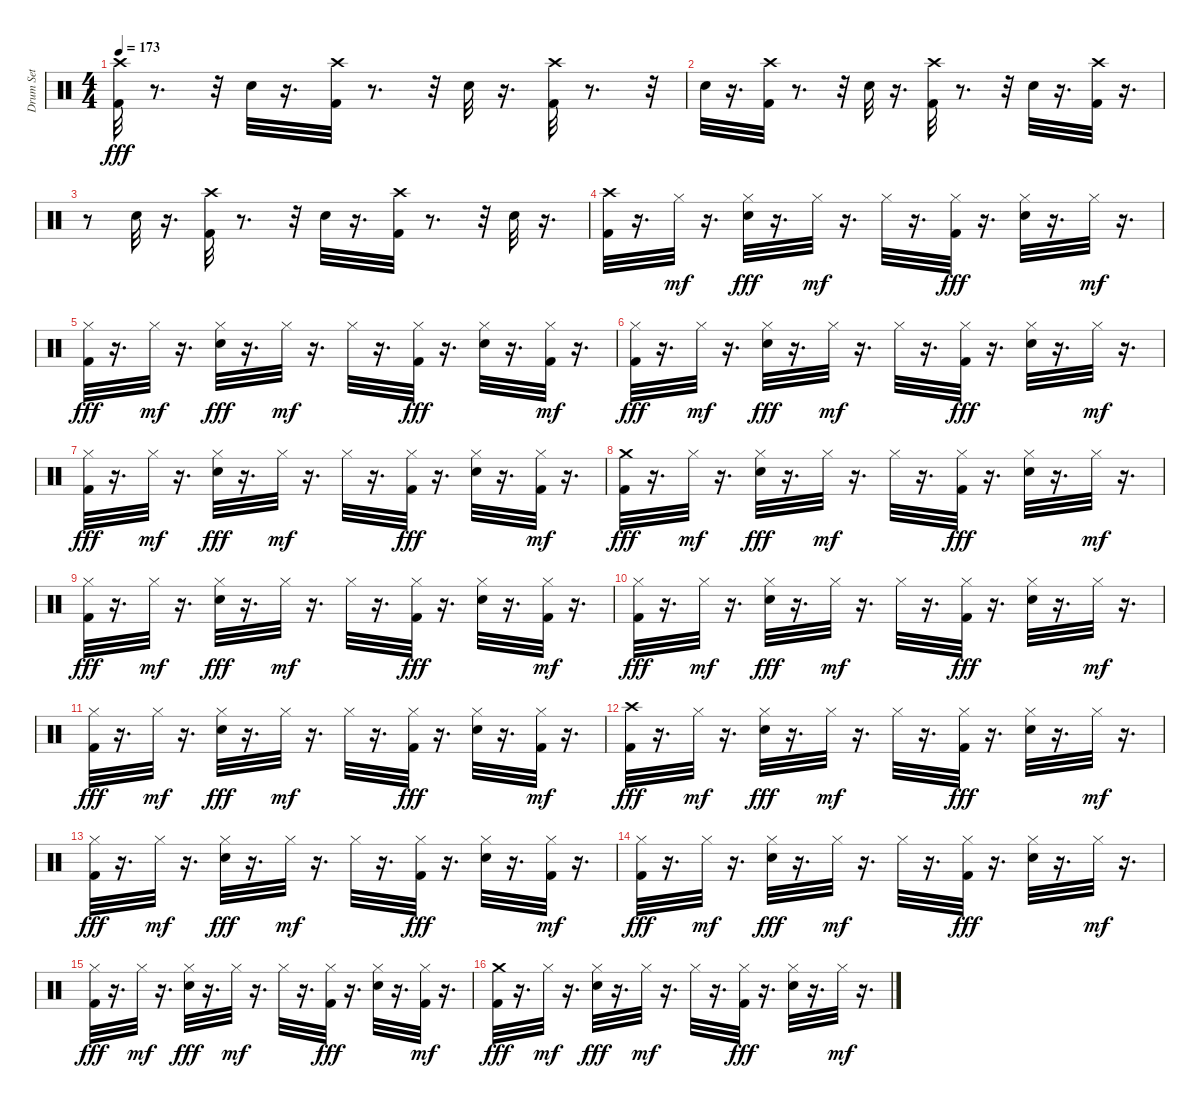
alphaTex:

\track ("Drum Set" "Drum Set") {instrument percussion}
\staff {score}
\articulation defaults
\ts (4 4)
\tempo 173
\clef neutral
\ks c
("Crash high (hit)" "Kick (hit) 2").32{dy fff} r.8{d} r.32 "Electric Snare (hit)".32 r.16{d} ("Crash high (hit)" "Kick (hit) 2").32 r.8{d} r.32 "Electric Snare (hit)".32 r.16{d} ("Crash high (hit)" "Kick (hit) 2").32 r.8{d} r.32 |
"Electric Snare (hit)".32 r.16{d} ("Crash high (hit)" "Kick (hit) 2").32 r.8{d} r.32 "Electric Snare (hit)".32 r.16{d} ("Crash high (hit)" "Kick (hit) 2").32 r.8{d} r.32 "Electric Snare (hit)".32 r.16{d} ("Crash high (hit)" "Kick (hit) 2").32 r.16{d} |
r.8 "Electric Snare (hit)".32 r.16{d} ("Crash high (hit)" "Kick (hit) 2").32 r.8{d} r.32 "Electric Snare (hit)".32 r.16{d} ("Crash high (hit)" "Kick (hit) 2").32 r.8{d} r.32 "Electric Snare (hit)".32 r.16{d} |
("Crash high (hit)" "Kick (hit) 2").32 r.16{d} "Hi-Hat (closed)".32{dy mf} r.16{d} ("Hi-Hat (closed)" "Electric Snare (hit)").32{dy fff} r.16{d} "Hi-Hat (closed)".32{dy mf} r.16{d} "Hi-Hat (closed)".32 r.16{d} ("Hi-Hat (closed)" "Kick (hit) 2").32{dy fff} r.16{d} ("Hi-Hat (closed)" "Electric Snare (hit)").32 r.16{d} "Hi-Hat (closed)".32{dy mf} r.16{d} |
("Hi-Hat (closed)" "Kick (hit) 2").32{dy fff} r.16{d} "Hi-Hat (closed)".32{dy mf} r.16{d} ("Hi-Hat (closed)" "Electric Snare (hit)").32{dy fff} r.16{d} "Hi-Hat (closed)".32{dy mf} r.16{d} "Hi-Hat (closed)".32 r.16{d} ("Hi-Hat (closed)" "Kick (hit) 2").32{dy fff} r.16{d} ("Hi-Hat (closed)" "Electric Snare (hit)").32 r.16{d} ("Kick (hit) 2" "Hi-Hat (closed)").32{dy mf} r.16{d} |
("Hi-Hat (closed)" "Kick (hit) 2").32{dy fff} r.16{d} "Hi-Hat (closed)".32{dy mf} r.16{d} ("Hi-Hat (closed)" "Electric Snare (hit)").32{dy fff} r.16{d} "Hi-Hat (closed)".32{dy mf} r.16{d} "Hi-Hat (closed)".32 r.16{d} ("Hi-Hat (closed)" "Kick (hit) 2").32{dy fff} r.16{d} ("Hi-Hat (closed)" "Electric Snare (hit)").32 r.16{d} "Hi-Hat (closed)".32{dy mf} r.16{d} |
("Hi-Hat (closed)" "Kick (hit) 2").32{dy fff} r.16{d} "Hi-Hat (closed)".32{dy mf} r.16{d} ("Hi-Hat (closed)" "Electric Snare (hit)").32{dy fff} r.16{d} "Hi-Hat (closed)".32{dy mf} r.16{d} "Hi-Hat (closed)".32 r.16{d} ("Hi-Hat (closed)" "Kick (hit) 2").32{dy fff} r.16{d} ("Hi-Hat (closed)" "Electric Snare (hit)").32 r.16{d} ("Kick (hit) 2" "Hi-Hat (closed)").32{dy mf} r.16{d} |
("Crash medium (hit)" "Kick (hit) 2").32{dy fff} r.16{d} "Hi-Hat (closed)".32{dy mf} r.16{d} ("Hi-Hat (closed)" "Electric Snare (hit)").32{dy fff} r.16{d} "Hi-Hat (closed)".32{dy mf} r.16{d} "Hi-Hat (closed)".32 r.16{d} ("Hi-Hat (closed)" "Kick (hit) 2").32{dy fff} r.16{d} ("Hi-Hat (closed)" "Electric Snare (hit)").32 r.16{d} "Hi-Hat (closed)".32{dy mf} r.16{d} |
("Hi-Hat (closed)" "Kick (hit) 2").32{dy fff} r.16{d} "Hi-Hat (closed)".32{dy mf} r.16{d} ("Hi-Hat (closed)" "Electric Snare (hit)").32{dy fff} r.16{d} "Hi-Hat (closed)".32{dy mf} r.16{d} "Hi-Hat (closed)".32 r.16{d} ("Hi-Hat (closed)" "Kick (hit) 2").32{dy fff} r.16{d} ("Hi-Hat (closed)" "Electric Snare (hit)").32 r.16{d} ("Kick (hit) 2" "Hi-Hat (closed)").32{dy mf} r.16{d} |
("Hi-Hat (closed)" "Kick (hit) 2").32{dy fff} r.16{d} "Hi-Hat (closed)".32{dy mf} r.16{d} ("Hi-Hat (closed)" "Electric Snare (hit)").32{dy fff} r.16{d} "Hi-Hat (closed)".32{dy mf} r.16{d} "Hi-Hat (closed)".32 r.16{d} ("Hi-Hat (closed)" "Kick (hit) 2").32{dy fff} r.16{d} ("Hi-Hat (closed)" "Electric Snare (hit)").32 r.16{d} "Hi-Hat (closed)".32{dy mf} r.16{d} |
("Hi-Hat (closed)" "Kick (hit) 2").32{dy fff} r.16{d} "Hi-Hat (closed)".32{dy mf} r.16{d} ("Hi-Hat (closed)" "Electric Snare (hit)").32{dy fff} r.16{d} "Hi-Hat (closed)".32{dy mf} r.16{d} "Hi-Hat (closed)".32 r.16{d} ("Hi-Hat (closed)" "Kick (hit) 2").32{dy fff} r.16{d} ("Hi-Hat (closed)" "Electric Snare (hit)").32 r.16{d} ("Kick (hit) 2" "Hi-Hat (closed)").32{dy mf} r.16{d} |
("Crash high (hit)" "Kick (hit) 2").32{dy fff} r.16{d} "Hi-Hat (closed)".32{dy mf} r.16{d} ("Hi-Hat (closed)" "Electric Snare (hit)").32{dy fff} r.16{d} "Hi-Hat (closed)".32{dy mf} r.16{d} "Hi-Hat (closed)".32 r.16{d} ("Hi-Hat (closed)" "Kick (hit) 2").32{dy fff} r.16{d} ("Hi-Hat (closed)" "Electric Snare (hit)").32 r.16{d} "Hi-Hat (closed)".32{dy mf} r.16{d} |
("Hi-Hat (closed)" "Kick (hit) 2").32{dy fff} r.16{d} "Hi-Hat (closed)".32{dy mf} r.16{d} ("Hi-Hat (closed)" "Electric Snare (hit)").32{dy fff} r.16{d} "Hi-Hat (closed)".32{dy mf} r.16{d} "Hi-Hat (closed)".32 r.16{d} ("Hi-Hat (closed)" "Kick (hit) 2").32{dy fff} r.16{d} ("Hi-Hat (closed)" "Electric Snare (hit)").32 r.16{d} ("Kick (hit) 2" "Hi-Hat (closed)").32{dy mf} r.16{d} |
("Hi-Hat (closed)" "Kick (hit) 2").32{dy fff} r.16{d} "Hi-Hat (closed)".32{dy mf} r.16{d} ("Hi-Hat (closed)" "Electric Snare (hit)").32{dy fff} r.16{d} "Hi-Hat (closed)".32{dy mf} r.16{d} "Hi-Hat (closed)".32 r.16{d} ("Hi-Hat (closed)" "Kick (hit) 2").32{dy fff} r.16{d} ("Hi-Hat (closed)" "Electric Snare (hit)").32 r.16{d} "Hi-Hat (closed)".32{dy mf} r.16{d} |
("Hi-Hat (closed)" "Kick (hit) 2").32{dy fff} r.16{d} "Hi-Hat (closed)".32{dy mf} r.16{d} ("Hi-Hat (closed)" "Electric Snare (hit)").32{dy fff} r.16{d} "Hi-Hat (closed)".32{dy mf} r.16{d} "Hi-Hat (closed)".32 r.16{d} ("Hi-Hat (closed)" "Kick (hit) 2").32{dy fff} r.16{d} ("Hi-Hat (closed)" "Electric Snare (hit)").32 r.16{d} ("Kick (hit) 2" "Hi-Hat (closed)").32{dy mf} r.16{d} |
("Crash medium (hit)" "Kick (hit) 2").32{dy fff} r.16{d} "Hi-Hat (closed)".32{dy mf} r.16{d} ("Hi-Hat (closed)" "Electric Snare (hit)").32{dy fff} r.16{d} "Hi-Hat (closed)".32{dy mf} r.16{d} "Hi-Hat (closed)".32 r.16{d} ("Hi-Hat (closed)" "Kick (hit) 2").32{dy fff} r.16{d} ("Hi-Hat (closed)" "Electric Snare (hit)").32 r.16{d} "Hi-Hat (closed)".32{dy mf} r.16{d}
